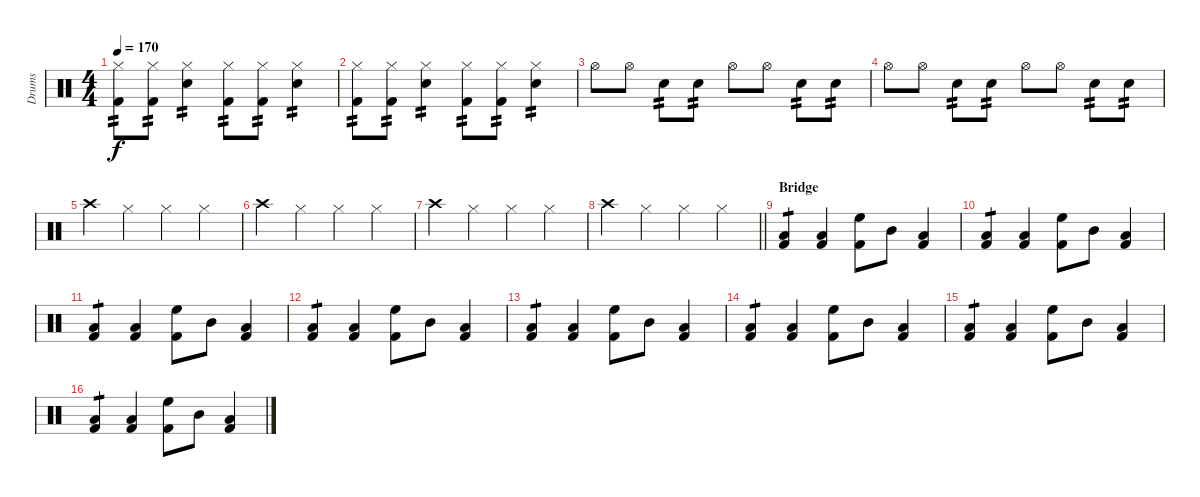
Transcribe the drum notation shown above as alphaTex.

\track ("Drums" "Drums") {instrument percussion}
\staff {score}
\articulation defaults
\ts (4 4)
\tempo 170
\clef neutral
\ks c
("Kick (hit) 2" "Hi-Hat (closed)").8{tp 2 dy f} ("Kick (hit) 2" "Hi-Hat (closed)").8{tp 2} ("Snare (hit) 2" "Hi-Hat (closed)").4{tp 2} ("Kick (hit) 2" "Hi-Hat (closed)").8{tp 2} ("Kick (hit) 2" "Hi-Hat (closed)").8{tp 2} ("Snare (hit) 2" "Hi-Hat (closed)").4{tp 2} |
("Kick (hit) 2" "Hi-Hat (closed)").8{tp 2} ("Kick (hit) 2" "Hi-Hat (closed)").8{tp 2} ("Snare (hit) 2" "Hi-Hat (closed)").4{tp 2} ("Kick (hit) 2" "Hi-Hat (closed)").8{tp 2} ("Kick (hit) 2" "Hi-Hat (closed)").8{tp 2} ("Snare (hit) 2" "Hi-Hat (closed)").4{tp 2} |
"Hi-Hat (open)".8 "Hi-Hat (open)".8 "Snare (hit) 2".8{tp 2} "Snare (hit) 2".8{tp 2} "Hi-Hat (open)".8 "Hi-Hat (open)".8 "Snare (hit) 2".8{tp 2} "Snare (hit) 2".8{tp 2} |
"Hi-Hat (open)".8 "Hi-Hat (open)".8 "Snare (hit) 2".8{tp 2} "Snare (hit) 2".8{tp 2} "Hi-Hat (open)".8 "Hi-Hat (open)".8 "Snare (hit) 2".8{tp 2} "Snare (hit) 2".8{tp 2} |
"Crash high (hit)".4 "Hi-Hat (closed)".4 "Hi-Hat (closed)".4 "Hi-Hat (closed)".4 |
"Crash high (hit)".4 "Hi-Hat (closed)".4 "Hi-Hat (closed)".4 "Hi-Hat (closed)".4 |
"Crash high (hit)".4 "Hi-Hat (closed)".4 "Hi-Hat (closed)".4 "Hi-Hat (closed)".4 |
\barLineRight lightlight "Crash high (hit)".4 "Hi-Hat (closed)".4 "Hi-Hat (closed)".4 "Hi-Hat (closed)".4
|
\section ("" "Bridge")
("Kick (hit) 2" "Low Floor Tom (hit)").4{tp 1} ("Kick (hit) 2" "Low Floor Tom (hit)").4 ("Kick (hit) 2" "High Floor Tom (hit)").8 "Mid Tom (hit)".8 ("Kick (hit) 2" "Low Tom (hit)").4 |
("Kick (hit) 2" "Low Floor Tom (hit)").4{tp 1} ("Kick (hit) 2" "Low Floor Tom (hit)").4 ("Kick (hit) 2" "High Floor Tom (hit)").8 "Mid Tom (hit)".8 ("Kick (hit) 2" "Low Tom (hit)").4 |
("Kick (hit) 2" "Low Floor Tom (hit)").4{tp 1} ("Kick (hit) 2" "Low Floor Tom (hit)").4 ("Kick (hit) 2" "High Floor Tom (hit)").8 "Mid Tom (hit)".8 ("Kick (hit) 2" "Low Tom (hit)").4 |
("Kick (hit) 2" "Low Floor Tom (hit)").4{tp 1} ("Kick (hit) 2" "Low Floor Tom (hit)").4 ("Kick (hit) 2" "High Floor Tom (hit)").8 "Mid Tom (hit)".8 ("Kick (hit) 2" "Low Tom (hit)").4 |
("Kick (hit) 2" "Low Floor Tom (hit)").4{tp 1} ("Kick (hit) 2" "Low Floor Tom (hit)").4 ("Kick (hit) 2" "High Floor Tom (hit)").8 "Mid Tom (hit)".8 ("Kick (hit) 2" "Low Tom (hit)").4 |
("Kick (hit) 2" "Low Floor Tom (hit)").4{tp 1} ("Kick (hit) 2" "Low Floor Tom (hit)").4 ("Kick (hit) 2" "High Floor Tom (hit)").8 "Mid Tom (hit)".8 ("Kick (hit) 2" "Low Tom (hit)").4 |
("Kick (hit) 2" "Low Floor Tom (hit)").4{tp 1} ("Kick (hit) 2" "Low Floor Tom (hit)").4 ("Kick (hit) 2" "High Floor Tom (hit)").8 "Mid Tom (hit)".8 ("Kick (hit) 2" "Low Tom (hit)").4 |
("Kick (hit) 2" "Low Floor Tom (hit)").4{tp 1} ("Kick (hit) 2" "Low Floor Tom (hit)").4 ("Kick (hit) 2" "High Floor Tom (hit)").8 "Mid Tom (hit)".8 ("Kick (hit) 2" "Low Tom (hit)").4
